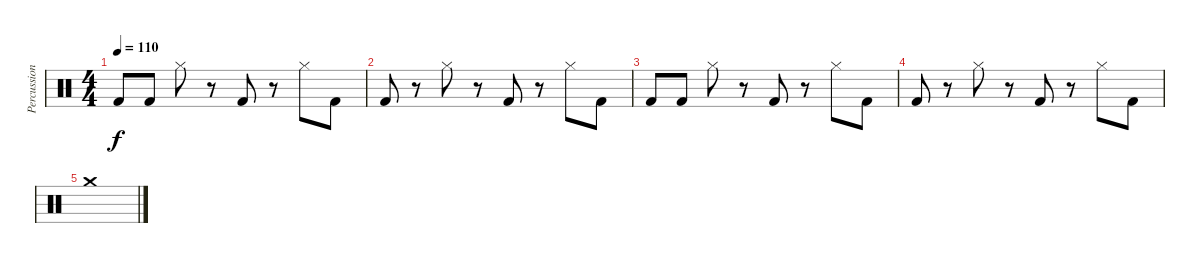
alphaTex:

\track ("Percussion" "Percussion") {instrument percussion}
\staff {score}
\articulation defaults
\ts (4 4)
\tempo 110
\clef neutral
\ks c "Kick (hit) 2".8{dy f} "Kick (hit) 2".8 "Hi-Hat (closed)".8
r.8 "Kick (hit) 2".8 r.8 "Hi-Hat (closed)".8 "Kick (hit) 2".8 |
"Kick (hit) 2".8 r.8 "Hi-Hat (closed)".8 r.8 "Kick (hit) 2".8 r.8 "Hi-Hat (closed)".8 "Kick (hit) 2".8 |
"Kick (hit) 2".8 "Kick (hit) 2".8 "Hi-Hat (closed)".8 r.8 "Kick (hit) 2".8 r.8 "Hi-Hat (closed)".8 "Kick (hit) 2".8 |
"Kick (hit) 2".8 r.8 "Hi-Hat (closed)".8 r.8 "Kick (hit) 2".8 r.8 "Hi-Hat (closed)".8 "Kick (hit) 2".8 |
"Crash medium (hit)".1
